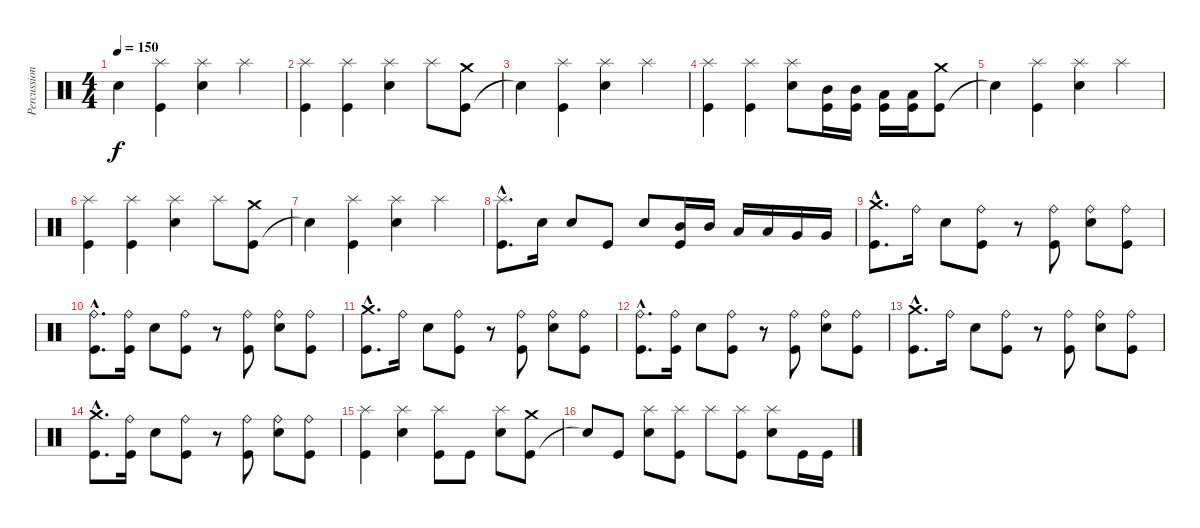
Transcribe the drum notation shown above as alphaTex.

\track ("Percussions" "Percussion") {instrument percussion}
\staff {score}
\articulation defaults
\ts (4 4)
\tempo 150
\clef neutral
\ks c "Snare (hit)"{t}.4{dy f}
("Kick (hit)" "Splash (hit)").4 ("Electric Snare (hit)" "Splash (hit)").4 "Splash (hit)".4 |
("Kick (hit)" "Splash (hit)").4 ("Kick (hit)" "Splash (hit)").4 ("Electric Snare (hit)" "Splash (hit)").4 "Splash (hit)".8 ("Kick (hit)" "Crash medium (hit)").8 |
"Snare (hit)"{t}.4 ("Kick (hit)" "Splash (hit)").4 ("Electric Snare (hit)" "Splash (hit)").4 "Splash (hit)".4 |
("Kick (hit)" "Splash (hit)").4 ("Kick (hit)" "Splash (hit)").4 ("Electric Snare (hit)" "Splash (hit)").8 ("Kick (hit)" "Mid Tom (hit)").16 ("Kick (hit)" "Mid Tom (hit)").16 ("Kick (hit)" "Low Tom (hit)").16 ("Kick (hit)" "Low Tom (hit)").16 ("Kick (hit)" "Crash medium (hit)").8 |
"Snare (hit)"{t}.4 ("Kick (hit)" "Splash (hit)").4 ("Electric Snare (hit)" "Splash (hit)").4 "Splash (hit)".4 |
("Kick (hit)" "Splash (hit)").4 ("Kick (hit)" "Splash (hit)").4 ("Electric Snare (hit)" "Splash (hit)").4 "Splash (hit)".8 ("Kick (hit)" "Crash medium (hit)").8 |
"Snare (hit)"{t}.4 ("Kick (hit)" "Splash (hit)").4 ("Electric Snare (hit)" "Splash (hit)").4 "Splash (hit)".4 |
("Kick (hit)"{hac} "Splash (hit)"{hac}).8{d} "Electric Snare (hit)".16 "Electric Snare (hit)".8 "Kick (hit)".8 "Electric Snare (hit)".8 ("Kick (hit)" "Mid Tom (hit)").16 "Mid Tom (hit)".16 "Low Tom (hit)".16 "Low Tom (hit)".16 "Very Low Tom (hit)".16 "Very Low Tom (hit)".16 |
("Kick (hit)"{hac} "Crash medium (hit)"{hac}).8{d} "Ride (bell)".16 "Electric Snare (hit)".8 ("Kick (hit)" "Ride (bell)").8 r.8 ("Kick (hit)" "Ride (bell)").8 ("Electric Snare (hit)" "Ride (bell)").8 ("Kick (hit)" "Ride (bell)").8 |
("Kick (hit)"{hac} "Ride (bell)"{hac}).8{d} ("Kick (hit)" "Ride (bell)").16 "Electric Snare (hit)".8 ("Kick (hit)" "Ride (bell)").8 r.8 ("Kick (hit)" "Ride (bell)").8 ("Electric Snare (hit)" "Ride (bell)").8 ("Kick (hit)" "Ride (bell)").8 |
("Kick (hit)"{hac} "Crash medium (hit)"{hac}).8{d} "Ride (bell)".16 "Electric Snare (hit)".8 ("Kick (hit)" "Ride (bell)").8 r.8 ("Kick (hit)" "Ride (bell)").8 ("Electric Snare (hit)" "Ride (bell)").8 ("Kick (hit)" "Ride (bell)").8 |
("Kick (hit)"{hac} "Ride (bell)"{hac}).8{d} ("Kick (hit)" "Ride (bell)").16 "Electric Snare (hit)".8 ("Kick (hit)" "Ride (bell)").8 r.8 ("Kick (hit)" "Ride (bell)").8 ("Electric Snare (hit)" "Ride (bell)").8 ("Kick (hit)" "Ride (bell)").8 |
("Kick (hit)"{hac} "Crash medium (hit)"{hac}).8{d} "Ride (bell)".16 "Electric Snare (hit)".8 ("Kick (hit)" "Ride (bell)").8 r.8 ("Kick (hit)" "Ride (bell)").8 ("Electric Snare (hit)" "Ride (bell)").8 ("Kick (hit)" "Ride (bell)").8 |
("Kick (hit)"{hac} "Crash medium (hit)"{hac}).8{d} ("Kick (hit)" "Ride (bell)").16 "Electric Snare (hit)".8 ("Kick (hit)" "Ride (bell)").8 r.8 ("Kick (hit)" "Ride (bell)").8 ("Electric Snare (hit)" "Ride (bell)").8 ("Kick (hit)" "Ride (bell)").8 |
("Kick (hit)" "Splash (hit)").4 ("Electric Snare (hit)" "Splash (hit)").4 ("Kick (hit)" "Splash (hit)").8 "Kick (hit)".8 ("Electric Snare (hit)" "Splash (hit)").8 ("Kick (hit)" "Crash medium (hit)").8 |
"Snare (hit)"{t}.8 "Kick (hit)".8 ("Electric Snare (hit)" "Splash (hit)").8 ("Kick (hit)" "Splash (hit)").8 "Splash (hit)".8 ("Kick (hit)" "Splash (hit)").8 ("Electric Snare (hit)" "Splash (hit)").8 "Kick (hit)".16 "Kick (hit)".16
